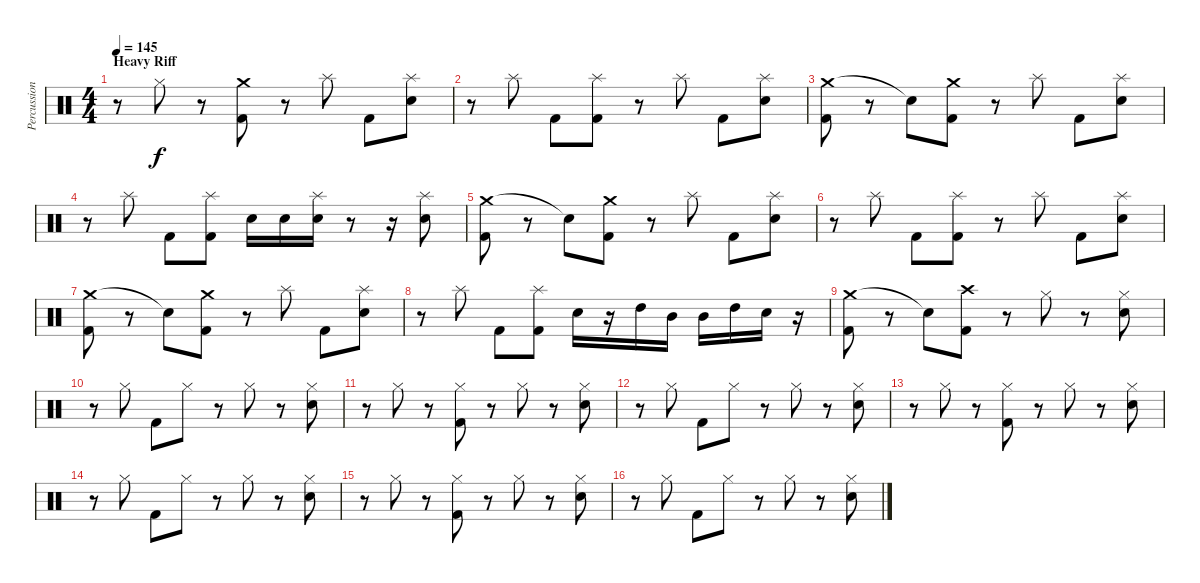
\track ("Percussion" "Percussion") {instrument percussion}
\staff {score}
\articulation defaults
\ts (4 4)
\section ("" "Heavy Riff")
\tempo 145
\clef neutral
\ks c
r.8{dy f} "Hi-Hat (closed)".8 r.8 ("Crash medium (hit)" "Kick (hit) 2").8 r.8 "Splash (hit)".8 "Kick (hit) 2".8 ("Splash (hit)" "Electric Snare (hit)").8 |
r.8 "Splash (hit)".8 "Kick (hit) 2".8 ("Splash (hit)" "Kick (hit) 2").8 r.8 "Splash (hit)".8 "Kick (hit) 2".8 ("Splash (hit)" "Electric Snare (hit)").8 |
("Crash medium (hit)" "Kick (hit) 2").8 r.8 "Snare (hit)"{t}.8 ("Crash medium (hit)" "Kick (hit) 2").8 r.8 "Splash (hit)".8 "Kick (hit) 2".8 ("Splash (hit)" "Electric Snare (hit)").8 |
r.8 "Splash (hit)".8 "Kick (hit) 2".8 ("Splash (hit)" "Kick (hit) 2").8 "Electric Snare (hit)".16 "Electric Snare (hit)".16 ("Splash (hit)" "Electric Snare (hit)").16 r.8 r.16 ("Splash (hit)" "Electric Snare (hit)").8 |
("Crash medium (hit)" "Kick (hit) 2").8 r.8 "Snare (hit)"{t}.8 ("Crash medium (hit)" "Kick (hit) 2").8 r.8 "Splash (hit)".8 "Kick (hit) 2".8 ("Splash (hit)" "Electric Snare (hit)").8 |
r.8 "Splash (hit)".8 "Kick (hit) 2".8 ("Splash (hit)" "Kick (hit) 2").8 r.8 "Splash (hit)".8 "Kick (hit) 2".8 ("Splash (hit)" "Electric Snare (hit)").8 |
("Crash medium (hit)" "Kick (hit) 2").8 r.8 "Snare (hit)"{t}.8 ("Crash medium (hit)" "Kick (hit) 2").8 r.8 "Splash (hit)".8 "Kick (hit) 2".8 ("Splash (hit)" "Electric Snare (hit)").8 |
r.8 "Splash (hit)".8 "Kick (hit) 2".8 ("Splash (hit)" "Kick (hit) 2").8 "Electric Snare (hit)".16 r.16 "High Tom (hit)".16 "Mid Tom (hit)".16 "Mid Tom (hit)".16 "High Tom (hit)".16 "Electric Snare (hit)".16 r.16 |
("Crash medium (hit)" "Kick (hit) 2").8 r.8 "Snare (hit)"{t}.8 ("Crash high (hit)" "Kick (hit) 2").8 r.8 "Hi-Hat (closed)".8 r.8 ("Hi-Hat (closed)" "Electric Snare (hit)").8 |
r.8 "Hi-Hat (closed)".8 "Kick (hit) 2".8 "Hi-Hat (closed)".8 r.8 "Hi-Hat (closed)".8 r.8 ("Hi-Hat (closed)" "Electric Snare (hit)").8 |
r.8 "Hi-Hat (closed)".8 r.8 ("Hi-Hat (closed)" "Kick (hit) 2").8 r.8 "Hi-Hat (closed)".8 r.8 ("Hi-Hat (closed)" "Electric Snare (hit)").8 |
r.8 "Hi-Hat (closed)".8 "Kick (hit) 2".8 "Hi-Hat (closed)".8 r.8 "Hi-Hat (closed)".8 r.8 ("Hi-Hat (closed)" "Electric Snare (hit)").8 |
r.8 "Hi-Hat (closed)".8 r.8 ("Hi-Hat (closed)" "Kick (hit) 2").8 r.8 "Hi-Hat (closed)".8 r.8 ("Hi-Hat (closed)" "Electric Snare (hit)").8 |
r.8 "Hi-Hat (closed)".8 "Kick (hit) 2".8 "Hi-Hat (closed)".8 r.8 "Hi-Hat (closed)".8 r.8 ("Hi-Hat (closed)" "Electric Snare (hit)").8 |
r.8 "Hi-Hat (closed)".8 r.8 ("Hi-Hat (closed)" "Kick (hit) 2").8 r.8 "Hi-Hat (closed)".8 r.8 ("Hi-Hat (closed)" "Electric Snare (hit)").8 |
r.8 "Hi-Hat (closed)".8 "Kick (hit) 2".8 "Hi-Hat (closed)".8 r.8 "Hi-Hat (closed)".8 r.8 ("Hi-Hat (closed)" "Electric Snare (hit)").8
